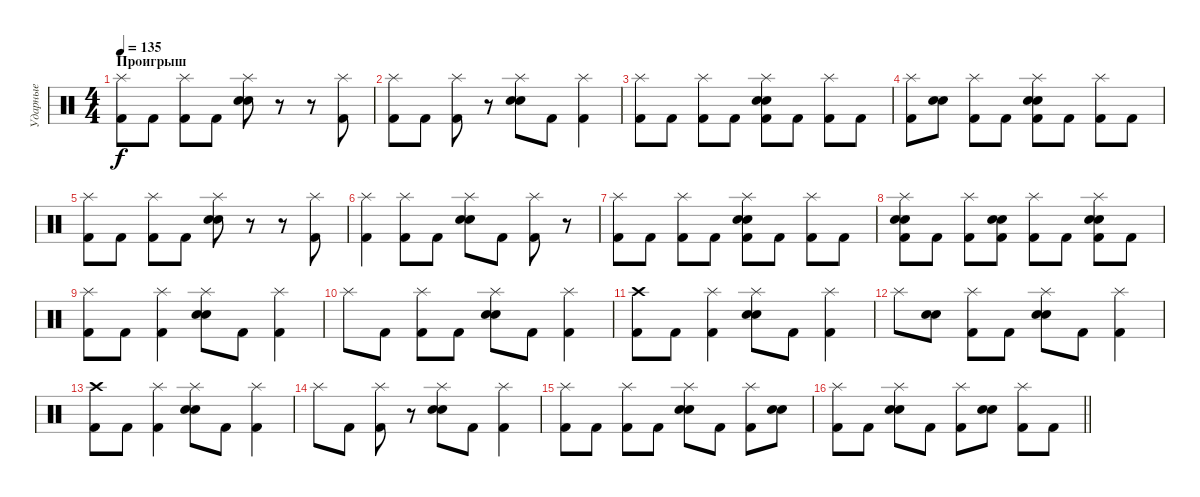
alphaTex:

\track ("Ударные" "Ударные") {instrument percussion}
\staff {score}
\articulation defaults
\ts (4 4)
\section ("" "Проигрыш")
\tempo 135
\clef neutral
\ks c
("Splash (hit)" "Kick (hit) 2").8{dy f} "Kick (hit) 2".8 ("Splash (hit)" "Kick (hit) 2").8 "Kick (hit) 2".8 ("Splash (hit)" "Electric Snare (hit)" "Snare (hit) 2").8 r.8 r.8 ("Splash (hit)" "Kick (hit) 2").8 |
("Splash (hit)" "Kick (hit) 2").8 "Kick (hit) 2".8 ("Splash (hit)" "Kick (hit) 2").8 r.8 ("Splash (hit)" "Electric Snare (hit)" "Snare (hit) 2").8 "Kick (hit) 2".8 ("Splash (hit)" "Kick (hit) 2").4 |
("Splash (hit)" "Kick (hit) 2").8 "Kick (hit) 2".8 ("Splash (hit)" "Kick (hit) 2").8 "Kick (hit) 2".8 ("Splash (hit)" "Electric Snare (hit)" "Snare (hit) 2" "Kick (hit) 2").8 "Kick (hit) 2".8 ("Splash (hit)" "Kick (hit) 2").8 "Kick (hit) 2".8 |
("Splash (hit)" "Kick (hit) 2").8 ("Electric Snare (hit)" "Snare (hit) 2").8 ("Splash (hit)" "Kick (hit) 2").8 "Kick (hit) 2".8 ("Splash (hit)" "Electric Snare (hit)" "Snare (hit) 2" "Kick (hit) 2").8 "Kick (hit) 2".8 ("Splash (hit)" "Kick (hit) 2").8 "Kick (hit) 2".8 |
("Splash (hit)" "Kick (hit) 2").8 "Kick (hit) 2".8 ("Splash (hit)" "Kick (hit) 2").8 "Kick (hit) 2".8 ("Splash (hit)" "Electric Snare (hit)" "Snare (hit) 2").8 r.8 r.8 ("Splash (hit)" "Kick (hit) 2").8 |
("Splash (hit)" "Kick (hit) 2").4 ("Splash (hit)" "Kick (hit) 2").8 "Kick (hit) 2".8 ("Splash (hit)" "Electric Snare (hit)" "Snare (hit) 2").8 "Kick (hit) 2".8 ("Splash (hit)" "Kick (hit) 2").8 r.8 |
("Splash (hit)" "Kick (hit) 2").8 "Kick (hit) 2".8 ("Splash (hit)" "Kick (hit) 2").8 "Kick (hit) 2".8 ("Splash (hit)" "Electric Snare (hit)" "Snare (hit) 2" "Kick (hit) 2").8 "Kick (hit) 2".8 ("Splash (hit)" "Kick (hit) 2").8 "Kick (hit) 2".8 |
("Splash (hit)" "Electric Snare (hit)" "Snare (hit) 2" "Kick (hit) 2").8 "Kick (hit) 2".8 ("Splash (hit)" "Kick (hit) 2").8 ("Electric Snare (hit)" "Snare (hit) 2" "Kick (hit) 2").8 ("Splash (hit)" "Kick (hit) 2").8 "Kick (hit) 2".8 ("Splash (hit)" "Electric Snare (hit)" "Snare (hit) 2" "Kick (hit) 2").8 "Kick (hit) 2".8 |
("Splash (hit)" "Kick (hit) 2").8 "Kick (hit) 2".8 ("Splash (hit)" "Kick (hit) 2").4 ("Splash (hit)" "Electric Snare (hit)" "Snare (hit) 2").8 "Kick (hit) 2".8 ("Splash (hit)" "Kick (hit) 2").4 |
"Splash (hit)".8 "Kick (hit) 2".8 ("Splash (hit)" "Kick (hit) 2").8 "Kick (hit) 2".8 ("Splash (hit)" "Electric Snare (hit)" "Snare (hit) 2").8 "Kick (hit) 2".8 ("Splash (hit)" "Kick (hit) 2").4 |
("Crash high (hit)" "Kick (hit) 2").8 "Kick (hit) 2".8 ("Splash (hit)" "Kick (hit) 2").4 ("Splash (hit)" "Electric Snare (hit)" "Snare (hit) 2").8 "Kick (hit) 2".8 ("Splash (hit)" "Kick (hit) 2").4 |
"Splash (hit)".8 ("Electric Snare (hit)" "Snare (hit) 2").8 ("Splash (hit)" "Kick (hit) 2").8 "Kick (hit) 2".8 ("Splash (hit)" "Electric Snare (hit)" "Snare (hit) 2").8 "Kick (hit) 2".8 ("Splash (hit)" "Kick (hit) 2").4 |
("Crash high (hit)" "Kick (hit) 2").8 "Kick (hit) 2".8 ("Splash (hit)" "Kick (hit) 2").4 ("Splash (hit)" "Electric Snare (hit)" "Snare (hit) 2").8 "Kick (hit) 2".8 ("Splash (hit)" "Kick (hit) 2").4 |
"Splash (hit)".8 "Kick (hit) 2".8 ("Splash (hit)" "Kick (hit) 2").8 r.8 ("Splash (hit)" "Electric Snare (hit)" "Snare (hit) 2").8 "Kick (hit) 2".8 ("Splash (hit)" "Kick (hit) 2").4 |
("Splash (hit)" "Kick (hit) 2").8 "Kick (hit) 2".8 ("Splash (hit)" "Kick (hit) 2").8 "Kick (hit) 2".8 ("Splash (hit)" "Electric Snare (hit)" "Snare (hit) 2").8 "Kick (hit) 2".8 ("Splash (hit)" "Kick (hit) 2").8 ("Electric Snare (hit)" "Snare (hit) 2").8 |
\barLineRight lightlight
("Splash (hit)" "Kick (hit) 2").8 "Kick (hit) 2".8 ("Splash (hit)" "Electric Snare (hit)" "Snare (hit) 2").8 "Kick (hit) 2".8 ("Splash (hit)" "Kick (hit) 2").8 ("Electric Snare (hit)" "Snare (hit) 2").8 ("Splash (hit)" "Kick (hit) 2").8 "Kick (hit) 2".8
